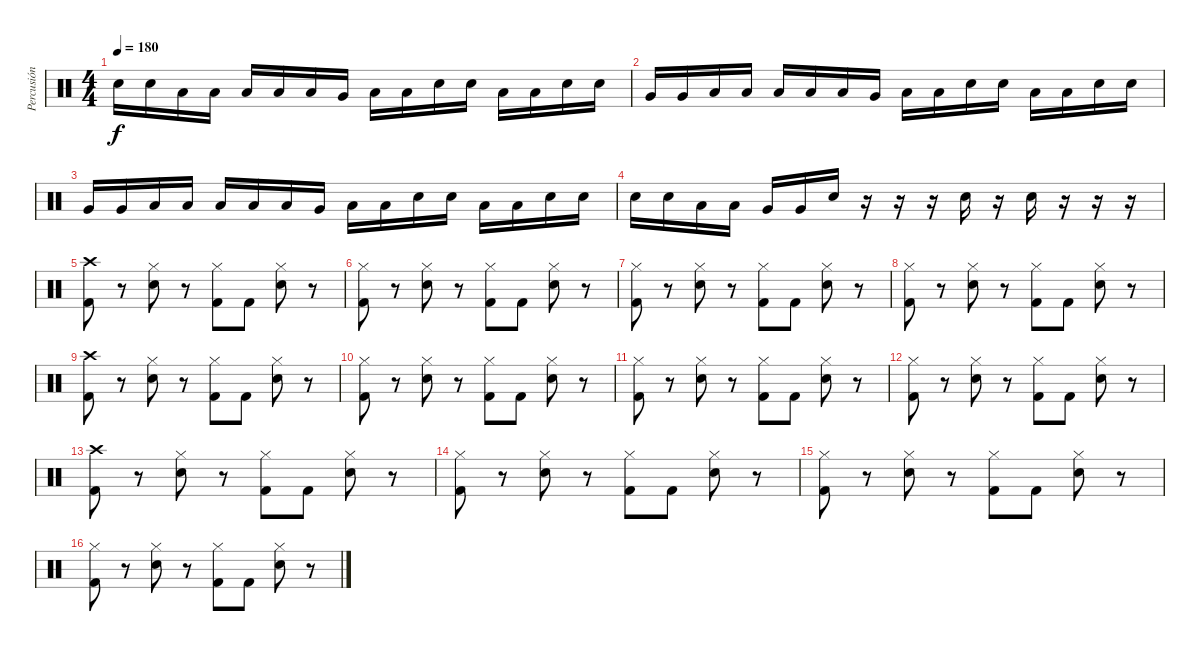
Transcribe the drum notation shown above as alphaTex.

\track ("Percusión" "Percusión") {instrument percussion}
\staff {score}
\articulation defaults
\ts (4 4)
\tempo 180
\clef neutral
\ks c "Electric Snare (hit)".16{dy f} "Electric Snare (hit)".16 "Low Tom (hit)".16 "Low Tom (hit)".16 "Low Tom (hit)".16 "Low Tom (hit)".16 "Low Tom (hit)".16 "Very Low Tom (hit)".16 "Low Tom (hit)".16 "Low Tom (hit)".16 "Electric Snare (hit)".16 "Electric Snare (hit)".16 "Low Floor Tom (hit)".16 "Low Floor Tom (hit)".16 "Electric Snare (hit)".16 "Electric Snare (hit)".16
|
"Very Low Tom (hit)".16 "Very Low Tom (hit)".16 "Low Tom (hit)".16 "Low Tom (hit)".16 "Low Tom (hit)".16 "Low Tom (hit)".16 "Low Tom (hit)".16 "Very Low Tom (hit)".16 "Low Tom (hit)".16 "Low Tom (hit)".16 "Electric Snare (hit)".16 "Electric Snare (hit)".16 "Low Floor Tom (hit)".16 "Low Floor Tom (hit)".16 "Electric Snare (hit)".16 "Electric Snare (hit)".16 |
"Very Low Tom (hit)".16 "Very Low Tom (hit)".16 "Low Tom (hit)".16 "Low Tom (hit)".16 "Low Tom (hit)".16 "Low Tom (hit)".16 "Low Tom (hit)".16 "Very Low Tom (hit)".16 "Low Tom (hit)".16 "Low Tom (hit)".16 "Electric Snare (hit)".16 "Electric Snare (hit)".16 "Low Floor Tom (hit)".16 "Low Floor Tom (hit)".16 "Electric Snare (hit)".16 "Electric Snare (hit)".16 |
"Electric Snare (hit)".16 "Electric Snare (hit)".16 "Low Tom (hit)".16 "Low Tom (hit)".16 "Very Low Tom (hit)".16 "Very Low Tom (hit)".16 "Electric Snare (hit)".16 r.16 r.16 r.16 "Electric Snare (hit)".16 r.16 "Electric Snare (hit)".16 r.16 r.16 r.16 |
("Crash high (hit)" "Kick (hit) 2").8 r.8 ("Hi-Hat (closed)" "Electric Snare (hit)").8 r.8 ("Hi-Hat (closed)" "Kick (hit) 2").8 "Kick (hit) 2".8 ("Hi-Hat (closed)" "Electric Snare (hit)").8 r.8 |
("Hi-Hat (closed)" "Kick (hit) 2").8 r.8 ("Hi-Hat (closed)" "Electric Snare (hit)").8 r.8 ("Hi-Hat (closed)" "Kick (hit) 2").8 "Kick (hit) 2".8 ("Hi-Hat (closed)" "Electric Snare (hit)").8 r.8 |
("Hi-Hat (closed)" "Kick (hit) 2").8 r.8 ("Hi-Hat (closed)" "Electric Snare (hit)").8 r.8 ("Hi-Hat (closed)" "Kick (hit) 2").8 "Kick (hit) 2".8 ("Hi-Hat (closed)" "Electric Snare (hit)").8 r.8 |
("Hi-Hat (closed)" "Kick (hit) 2").8 r.8 ("Hi-Hat (closed)" "Electric Snare (hit)").8 r.8 ("Hi-Hat (closed)" "Kick (hit) 2").8 "Kick (hit) 2".8 ("Hi-Hat (closed)" "Electric Snare (hit)").8 r.8 |
("Crash high (hit)" "Kick (hit) 2").8 r.8 ("Hi-Hat (closed)" "Electric Snare (hit)").8 r.8 ("Hi-Hat (closed)" "Kick (hit) 2").8 "Kick (hit) 2".8 ("Hi-Hat (closed)" "Electric Snare (hit)").8 r.8 |
("Hi-Hat (closed)" "Kick (hit) 2").8 r.8 ("Hi-Hat (closed)" "Electric Snare (hit)").8 r.8 ("Hi-Hat (closed)" "Kick (hit) 2").8 "Kick (hit) 2".8 ("Hi-Hat (closed)" "Electric Snare (hit)").8 r.8 |
("Hi-Hat (closed)" "Kick (hit) 2").8 r.8 ("Hi-Hat (closed)" "Electric Snare (hit)").8 r.8 ("Hi-Hat (closed)" "Kick (hit) 2").8 "Kick (hit) 2".8 ("Hi-Hat (closed)" "Electric Snare (hit)").8 r.8 |
("Hi-Hat (closed)" "Kick (hit) 2").8 r.8 ("Hi-Hat (closed)" "Electric Snare (hit)").8 r.8 ("Hi-Hat (closed)" "Kick (hit) 2").8 "Kick (hit) 2".8 ("Hi-Hat (closed)" "Electric Snare (hit)").8 r.8 |
("Crash high (hit)" "Kick (hit) 2").8 r.8 ("Hi-Hat (closed)" "Electric Snare (hit)").8 r.8 ("Hi-Hat (closed)" "Kick (hit) 2").8 "Kick (hit) 2".8 ("Hi-Hat (closed)" "Electric Snare (hit)").8 r.8 |
("Hi-Hat (closed)" "Kick (hit) 2").8 r.8 ("Hi-Hat (closed)" "Electric Snare (hit)").8 r.8 ("Hi-Hat (closed)" "Kick (hit) 2").8 "Kick (hit) 2".8 ("Hi-Hat (closed)" "Electric Snare (hit)").8 r.8 |
("Hi-Hat (closed)" "Kick (hit) 2").8 r.8 ("Hi-Hat (closed)" "Electric Snare (hit)").8 r.8 ("Hi-Hat (closed)" "Kick (hit) 2").8 "Kick (hit) 2".8 ("Hi-Hat (closed)" "Electric Snare (hit)").8 r.8 |
("Hi-Hat (closed)" "Kick (hit) 2").8 r.8 ("Hi-Hat (closed)" "Electric Snare (hit)").8 r.8 ("Hi-Hat (closed)" "Kick (hit) 2").8 "Kick (hit) 2".8 ("Hi-Hat (closed)" "Electric Snare (hit)").8 r.8
